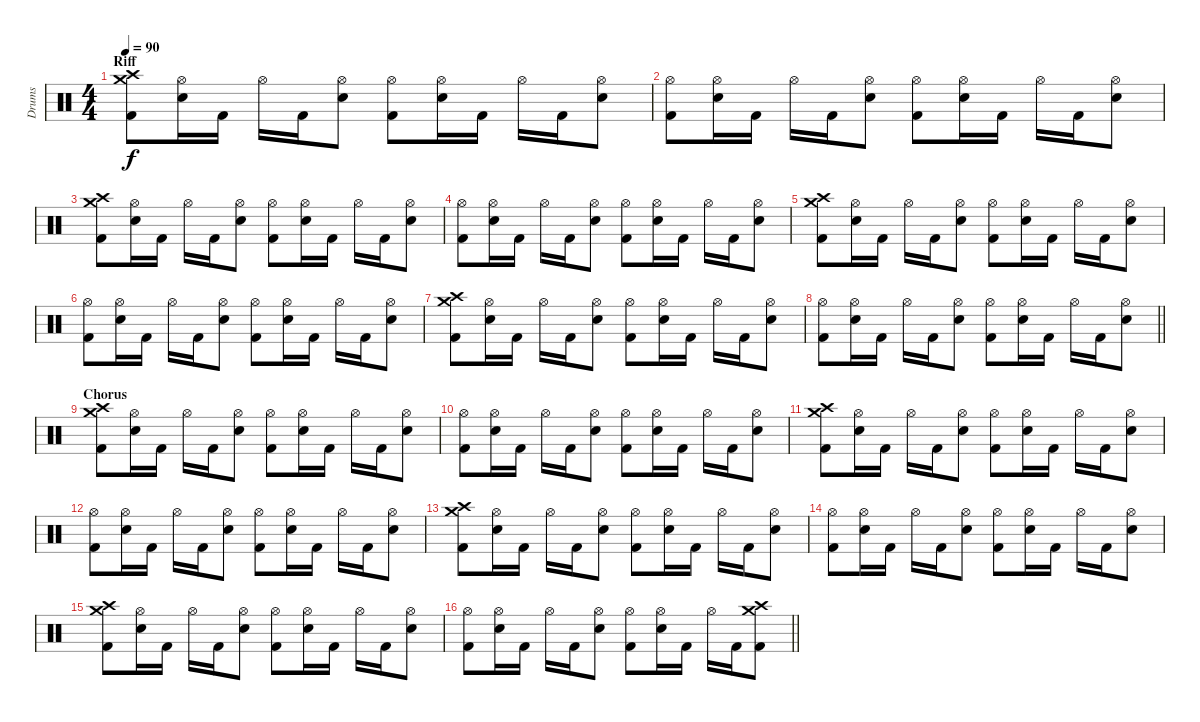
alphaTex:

\track ("Drums" "Drums") {instrument percussion}
\staff {score}
\articulation defaults
\ts (4 4)
\section ("" "Riff")
\tempo 90
\clef neutral
\ks c
("Kick (hit) 2" "Crash medium (hit)" "Crash high (hit)").8{dy f} ("Snare (hit) 2" "Hi-Hat (open)").16 "Kick (hit) 2".16 "Hi-Hat (open)".16 "Kick (hit) 2".16 ("Snare (hit) 2" "Hi-Hat (open)").8 ("Kick (hit) 2" "Hi-Hat (open)").8 ("Snare (hit) 2" "Hi-Hat (open)").16 "Kick (hit) 2".16 "Hi-Hat (open)".16 "Kick (hit) 2".16 ("Snare (hit) 2" "Hi-Hat (open)").8 |
("Kick (hit) 2" "Hi-Hat (open)").8 ("Snare (hit) 2" "Hi-Hat (open)").16 "Kick (hit) 2".16 "Hi-Hat (open)".16 "Kick (hit) 2".16 ("Snare (hit) 2" "Hi-Hat (open)").8 ("Kick (hit) 2" "Hi-Hat (open)").8 ("Snare (hit) 2" "Hi-Hat (open)").16 "Kick (hit) 2".16 "Hi-Hat (open)".16 "Kick (hit) 2".16 ("Snare (hit) 2" "Hi-Hat (open)").8 |
("Kick (hit) 2" "Crash medium (hit)" "Crash high (hit)").8 ("Snare (hit) 2" "Hi-Hat (open)").16 "Kick (hit) 2".16 "Hi-Hat (open)".16 "Kick (hit) 2".16 ("Snare (hit) 2" "Hi-Hat (open)").8 ("Kick (hit) 2" "Hi-Hat (open)").8 ("Snare (hit) 2" "Hi-Hat (open)").16 "Kick (hit) 2".16 "Hi-Hat (open)".16 "Kick (hit) 2".16 ("Snare (hit) 2" "Hi-Hat (open)").8 |
("Kick (hit) 2" "Hi-Hat (open)").8 ("Snare (hit) 2" "Hi-Hat (open)").16 "Kick (hit) 2".16 "Hi-Hat (open)".16 "Kick (hit) 2".16 ("Snare (hit) 2" "Hi-Hat (open)").8 ("Kick (hit) 2" "Hi-Hat (open)").8 ("Snare (hit) 2" "Hi-Hat (open)").16 "Kick (hit) 2".16 "Hi-Hat (open)".16 "Kick (hit) 2".16 ("Snare (hit) 2" "Hi-Hat (open)").8 |
("Kick (hit) 2" "Crash medium (hit)" "Crash high (hit)").8 ("Snare (hit) 2" "Hi-Hat (open)").16 "Kick (hit) 2".16 "Hi-Hat (open)".16 "Kick (hit) 2".16 ("Snare (hit) 2" "Hi-Hat (open)").8 ("Kick (hit) 2" "Hi-Hat (open)").8 ("Snare (hit) 2" "Hi-Hat (open)").16 "Kick (hit) 2".16 "Hi-Hat (open)".16 "Kick (hit) 2".16 ("Snare (hit) 2" "Hi-Hat (open)").8 |
("Kick (hit) 2" "Hi-Hat (open)").8 ("Snare (hit) 2" "Hi-Hat (open)").16 "Kick (hit) 2".16 "Hi-Hat (open)".16 "Kick (hit) 2".16 ("Snare (hit) 2" "Hi-Hat (open)").8 ("Kick (hit) 2" "Hi-Hat (open)").8 ("Snare (hit) 2" "Hi-Hat (open)").16 "Kick (hit) 2".16 "Hi-Hat (open)".16 "Kick (hit) 2".16 ("Snare (hit) 2" "Hi-Hat (open)").8 |
("Kick (hit) 2" "Crash medium (hit)" "Crash high (hit)").8 ("Snare (hit) 2" "Hi-Hat (open)").16 "Kick (hit) 2".16 "Hi-Hat (open)".16 "Kick (hit) 2".16 ("Snare (hit) 2" "Hi-Hat (open)").8 ("Kick (hit) 2" "Hi-Hat (open)").8 ("Snare (hit) 2" "Hi-Hat (open)").16 "Kick (hit) 2".16 "Hi-Hat (open)".16 "Kick (hit) 2".16 ("Snare (hit) 2" "Hi-Hat (open)").8 |
\barLineRight lightlight
("Kick (hit) 2" "Hi-Hat (open)").8 ("Snare (hit) 2" "Hi-Hat (open)").16 "Kick (hit) 2".16 "Hi-Hat (open)".16 "Kick (hit) 2".16 ("Snare (hit) 2" "Hi-Hat (open)").8 ("Kick (hit) 2" "Hi-Hat (open)").8 ("Snare (hit) 2" "Hi-Hat (open)").16 "Kick (hit) 2".16 "Hi-Hat (open)".16 "Kick (hit) 2".16 ("Snare (hit) 2" "Hi-Hat (open)").8 |
\section ("" "Chorus")
("Kick (hit) 2" "Crash medium (hit)" "Crash high (hit)").8 ("Snare (hit) 2" "Hi-Hat (open)").16 "Kick (hit) 2".16 "Hi-Hat (open)".16 "Kick (hit) 2".16 ("Snare (hit) 2" "Hi-Hat (open)").8 ("Kick (hit) 2" "Hi-Hat (open)").8 ("Snare (hit) 2" "Hi-Hat (open)").16 "Kick (hit) 2".16 "Hi-Hat (open)".16 "Kick (hit) 2".16 ("Snare (hit) 2" "Hi-Hat (open)").8 |
("Kick (hit) 2" "Hi-Hat (open)").8 ("Snare (hit) 2" "Hi-Hat (open)").16 "Kick (hit) 2".16 "Hi-Hat (open)".16 "Kick (hit) 2".16 ("Snare (hit) 2" "Hi-Hat (open)").8 ("Kick (hit) 2" "Hi-Hat (open)").8 ("Snare (hit) 2" "Hi-Hat (open)").16 "Kick (hit) 2".16 "Hi-Hat (open)".16 "Kick (hit) 2".16 ("Snare (hit) 2" "Hi-Hat (open)").8 |
("Kick (hit) 2" "Crash medium (hit)" "Crash high (hit)").8 ("Snare (hit) 2" "Hi-Hat (open)").16 "Kick (hit) 2".16 "Hi-Hat (open)".16 "Kick (hit) 2".16 ("Snare (hit) 2" "Hi-Hat (open)").8 ("Kick (hit) 2" "Hi-Hat (open)").8 ("Snare (hit) 2" "Hi-Hat (open)").16 "Kick (hit) 2".16 "Hi-Hat (open)".16 "Kick (hit) 2".16 ("Snare (hit) 2" "Hi-Hat (open)").8 |
("Kick (hit) 2" "Hi-Hat (open)").8 ("Snare (hit) 2" "Hi-Hat (open)").16 "Kick (hit) 2".16 "Hi-Hat (open)".16 "Kick (hit) 2".16 ("Snare (hit) 2" "Hi-Hat (open)").8 ("Kick (hit) 2" "Hi-Hat (open)").8 ("Snare (hit) 2" "Hi-Hat (open)").16 "Kick (hit) 2".16 "Hi-Hat (open)".16 "Kick (hit) 2".16 ("Snare (hit) 2" "Hi-Hat (open)").8 |
("Kick (hit) 2" "Crash medium (hit)" "Crash high (hit)").8 ("Snare (hit) 2" "Hi-Hat (open)").16 "Kick (hit) 2".16 "Hi-Hat (open)".16 "Kick (hit) 2".16 ("Snare (hit) 2" "Hi-Hat (open)").8 ("Kick (hit) 2" "Hi-Hat (open)").8 ("Snare (hit) 2" "Hi-Hat (open)").16 "Kick (hit) 2".16 "Hi-Hat (open)".16 "Kick (hit) 2".16 ("Snare (hit) 2" "Hi-Hat (open)").8 |
("Kick (hit) 2" "Hi-Hat (open)").8 ("Snare (hit) 2" "Hi-Hat (open)").16 "Kick (hit) 2".16 "Hi-Hat (open)".16 "Kick (hit) 2".16 ("Snare (hit) 2" "Hi-Hat (open)").8 ("Kick (hit) 2" "Hi-Hat (open)").8 ("Snare (hit) 2" "Hi-Hat (open)").16 "Kick (hit) 2".16 "Hi-Hat (open)".16 "Kick (hit) 2".16 ("Snare (hit) 2" "Hi-Hat (open)").8 |
("Kick (hit) 2" "Crash medium (hit)" "Crash high (hit)").8 ("Snare (hit) 2" "Hi-Hat (open)").16 "Kick (hit) 2".16 "Hi-Hat (open)".16 "Kick (hit) 2".16 ("Snare (hit) 2" "Hi-Hat (open)").8 ("Kick (hit) 2" "Hi-Hat (open)").8 ("Snare (hit) 2" "Hi-Hat (open)").16 "Kick (hit) 2".16 "Hi-Hat (open)".16 "Kick (hit) 2".16 ("Snare (hit) 2" "Hi-Hat (open)").8 |
\barLineRight lightlight
("Kick (hit) 2" "Hi-Hat (open)").8 ("Snare (hit) 2" "Hi-Hat (open)").16 "Kick (hit) 2".16 "Hi-Hat (open)".16 "Kick (hit) 2".16 ("Snare (hit) 2" "Hi-Hat (open)").8 ("Kick (hit) 2" "Hi-Hat (open)").8 ("Snare (hit) 2" "Hi-Hat (open)").16 "Kick (hit) 2".16 "Hi-Hat (open)".16 "Kick (hit) 2".16 ("Kick (hit) 2" "Crash medium (hit)" "Crash high (hit)").8
